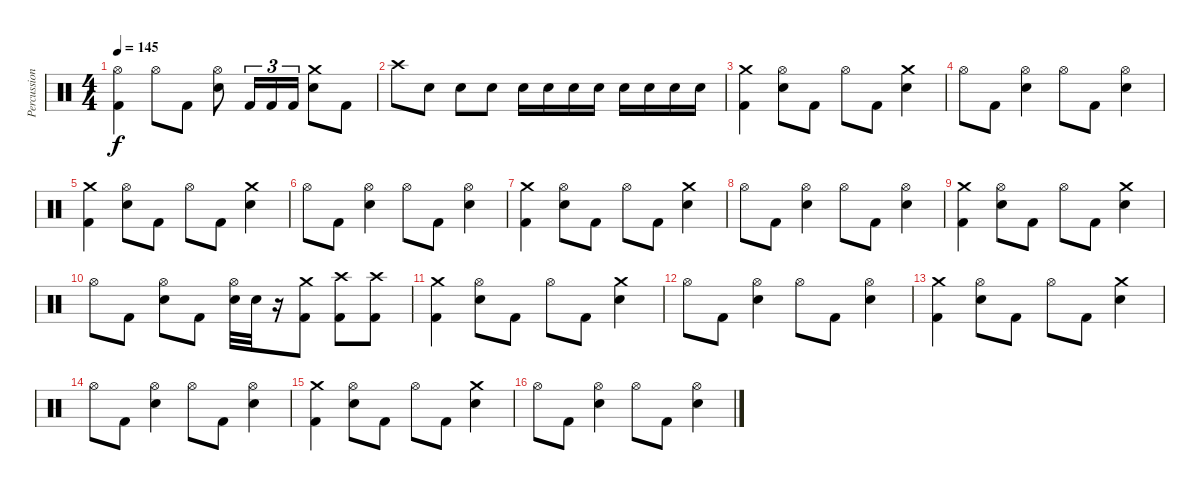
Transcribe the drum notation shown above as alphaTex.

\track ("Percussion" "Percussion") {instrument percussion}
\staff {score}
\articulation defaults
\ts (4 4)
\tempo 145
\clef neutral
\ks c
("Hi-Hat (open)" "Kick (hit) 2").4{dy f} "Hi-Hat (open)".8 "Kick (hit) 2".8 ("Hi-Hat (open)" "Snare (hit) 2").8 "Kick (hit) 2".16{tu (3 2)} "Kick (hit) 2".16{tu (3 2)} "Kick (hit) 2".16{tu (3 2)} ("Crash medium (hit)" "Snare (hit) 2").8 "Kick (hit) 2".8 |
"Crash high (hit)".8 "Snare (hit) 2".8 "Snare (hit) 2".8 "Snare (hit) 2".8 "Snare (hit) 2".16 "Snare (hit) 2".16 "Snare (hit) 2".16 "Snare (hit) 2".16 "Snare (hit) 2".16 "Snare (hit) 2".16 "Snare (hit) 2".16 "Snare (hit) 2".16 |
("Crash medium (hit)" "Kick (hit) 2").4 ("Hi-Hat (open)" "Snare (hit) 2").8 "Kick (hit) 2".8 "Hi-Hat (open)".8 "Kick (hit) 2".8 ("Crash medium (hit)" "Snare (hit) 2").4 |
"Hi-Hat (open)".8 "Kick (hit) 2".8 ("Hi-Hat (open)" "Snare (hit) 2").4 "Hi-Hat (open)".8 "Kick (hit) 2".8 ("Hi-Hat (open)" "Snare (hit) 2").4 |
("Crash medium (hit)" "Kick (hit) 2").4 ("Hi-Hat (open)" "Snare (hit) 2").8 "Kick (hit) 2".8 "Hi-Hat (open)".8 "Kick (hit) 2".8 ("Crash medium (hit)" "Snare (hit) 2").4 |
"Hi-Hat (open)".8 "Kick (hit) 2".8 ("Hi-Hat (open)" "Snare (hit) 2").4 "Hi-Hat (open)".8 "Kick (hit) 2".8 ("Hi-Hat (open)" "Snare (hit) 2").4 |
("Crash medium (hit)" "Kick (hit) 2").4 ("Hi-Hat (open)" "Snare (hit) 2").8 "Kick (hit) 2".8 "Hi-Hat (open)".8 "Kick (hit) 2".8 ("Crash medium (hit)" "Snare (hit) 2").4 |
"Hi-Hat (open)".8 "Kick (hit) 2".8 ("Hi-Hat (open)" "Snare (hit) 2").4 "Hi-Hat (open)".8 "Kick (hit) 2".8 ("Hi-Hat (open)" "Snare (hit) 2").4 |
("Crash medium (hit)" "Kick (hit) 2").4 ("Hi-Hat (open)" "Snare (hit) 2").8 "Kick (hit) 2".8 "Hi-Hat (open)".8 "Kick (hit) 2".8 ("Crash medium (hit)" "Snare (hit) 2").4 |
"Hi-Hat (open)".8 "Kick (hit) 2".8 ("Hi-Hat (open)" "Snare (hit) 2").8 "Kick (hit) 2".8 ("Hi-Hat (open)" "Snare (hit) 2").32 "Snare (hit) 2".32 r.16 ("Crash medium (hit)" "Kick (hit) 2").8 ("Crash high (hit)" "Kick (hit) 2").8 ("Crash high (hit)" "Kick (hit) 2").8 |
("Crash medium (hit)" "Kick (hit) 2").4 ("Hi-Hat (open)" "Snare (hit) 2").8 "Kick (hit) 2".8 "Hi-Hat (open)".8 "Kick (hit) 2".8 ("Crash medium (hit)" "Snare (hit) 2").4 |
"Hi-Hat (open)".8 "Kick (hit) 2".8 ("Hi-Hat (open)" "Snare (hit) 2").4 "Hi-Hat (open)".8 "Kick (hit) 2".8 ("Hi-Hat (open)" "Snare (hit) 2").4 |
("Crash medium (hit)" "Kick (hit) 2").4 ("Hi-Hat (open)" "Snare (hit) 2").8 "Kick (hit) 2".8 "Hi-Hat (open)".8 "Kick (hit) 2".8 ("Crash medium (hit)" "Snare (hit) 2").4 |
"Hi-Hat (open)".8 "Kick (hit) 2".8 ("Hi-Hat (open)" "Snare (hit) 2").4 "Hi-Hat (open)".8 "Kick (hit) 2".8 ("Hi-Hat (open)" "Snare (hit) 2").4 |
("Crash medium (hit)" "Kick (hit) 2").4 ("Hi-Hat (open)" "Snare (hit) 2").8 "Kick (hit) 2".8 "Hi-Hat (open)".8 "Kick (hit) 2".8 ("Crash medium (hit)" "Snare (hit) 2").4 |
"Hi-Hat (open)".8 "Kick (hit) 2".8 ("Hi-Hat (open)" "Snare (hit) 2").4 "Hi-Hat (open)".8 "Kick (hit) 2".8 ("Hi-Hat (open)" "Snare (hit) 2").4
